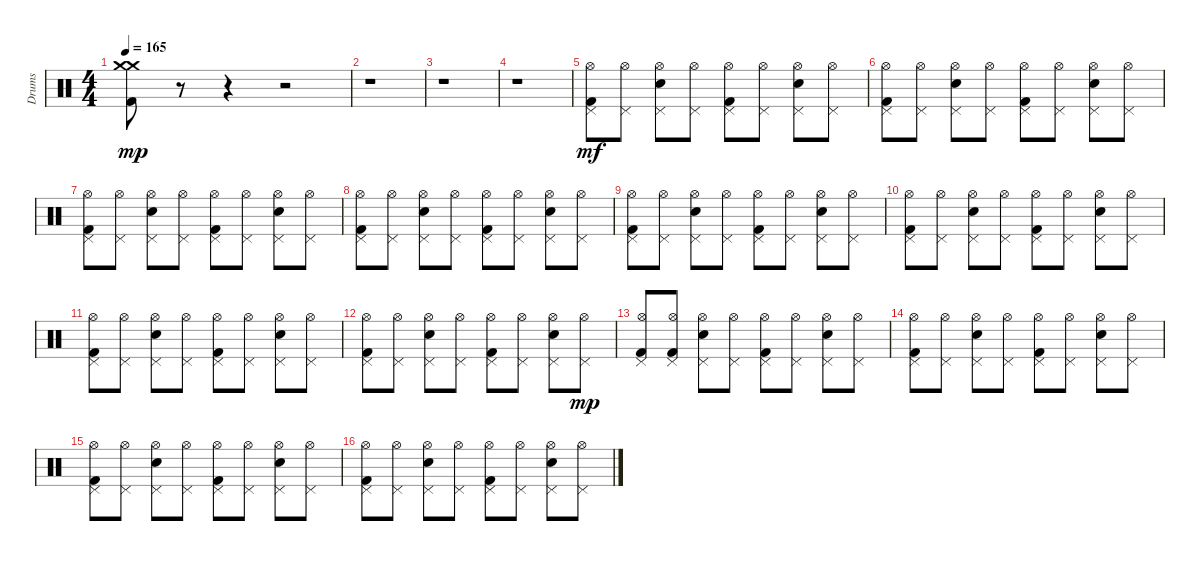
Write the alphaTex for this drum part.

\track ("Drums" "Drums") {instrument percussion}
\staff {score}
\articulation defaults
\ts (4 4)
\tempo 165
\clef neutral
\ks c
("Crash medium (hit)" "Crash medium (hit)" "Kick (hit) 2").8{dy mp} r.8 r.4 r.2 |
r.1 |
r.1 |
r.1 |
("Hi-Hat (open)" "Pedal Hi-Hat (hit)" "Kick (hit) 2").8{dy mf} ("Hi-Hat (open)" "Pedal Hi-Hat (hit)").8 ("Hi-Hat (open)" "Pedal Hi-Hat (hit)" "Electric Snare (hit)").8 ("Hi-Hat (open)" "Pedal Hi-Hat (hit)").8 ("Hi-Hat (open)" "Pedal Hi-Hat (hit)" "Kick (hit) 2").8 ("Hi-Hat (open)" "Pedal Hi-Hat (hit)").8 ("Hi-Hat (open)" "Pedal Hi-Hat (hit)" "Electric Snare (hit)").8 ("Hi-Hat (open)" "Pedal Hi-Hat (hit)").8 |
("Hi-Hat (open)" "Pedal Hi-Hat (hit)" "Kick (hit) 2").8 ("Hi-Hat (open)" "Pedal Hi-Hat (hit)").8 ("Hi-Hat (open)" "Pedal Hi-Hat (hit)" "Electric Snare (hit)").8 ("Hi-Hat (open)" "Pedal Hi-Hat (hit)").8 ("Hi-Hat (open)" "Pedal Hi-Hat (hit)" "Kick (hit) 2").8 ("Hi-Hat (open)" "Pedal Hi-Hat (hit)").8 ("Hi-Hat (open)" "Pedal Hi-Hat (hit)" "Electric Snare (hit)").8 ("Hi-Hat (open)" "Pedal Hi-Hat (hit)").8 |
("Hi-Hat (open)" "Pedal Hi-Hat (hit)" "Kick (hit) 2").8 ("Hi-Hat (open)" "Pedal Hi-Hat (hit)").8 ("Hi-Hat (open)" "Pedal Hi-Hat (hit)" "Electric Snare (hit)").8 ("Hi-Hat (open)" "Pedal Hi-Hat (hit)").8 ("Hi-Hat (open)" "Pedal Hi-Hat (hit)" "Kick (hit) 2").8 ("Hi-Hat (open)" "Pedal Hi-Hat (hit)").8 ("Hi-Hat (open)" "Pedal Hi-Hat (hit)" "Electric Snare (hit)").8 ("Hi-Hat (open)" "Pedal Hi-Hat (hit)").8 |
("Hi-Hat (open)" "Pedal Hi-Hat (hit)" "Kick (hit) 2").8 ("Hi-Hat (open)" "Pedal Hi-Hat (hit)").8 ("Hi-Hat (open)" "Pedal Hi-Hat (hit)" "Electric Snare (hit)").8 ("Hi-Hat (open)" "Pedal Hi-Hat (hit)").8 ("Hi-Hat (open)" "Pedal Hi-Hat (hit)" "Kick (hit) 2").8 ("Hi-Hat (open)" "Pedal Hi-Hat (hit)").8 ("Hi-Hat (open)" "Pedal Hi-Hat (hit)" "Electric Snare (hit)").8 ("Hi-Hat (open)" "Pedal Hi-Hat (hit)").8 |
("Hi-Hat (open)" "Pedal Hi-Hat (hit)" "Kick (hit) 2").8 ("Hi-Hat (open)" "Pedal Hi-Hat (hit)").8 ("Hi-Hat (open)" "Pedal Hi-Hat (hit)" "Electric Snare (hit)").8 ("Hi-Hat (open)" "Pedal Hi-Hat (hit)").8 ("Hi-Hat (open)" "Pedal Hi-Hat (hit)" "Kick (hit) 2").8 ("Hi-Hat (open)" "Pedal Hi-Hat (hit)").8 ("Hi-Hat (open)" "Pedal Hi-Hat (hit)" "Electric Snare (hit)").8 ("Hi-Hat (open)" "Pedal Hi-Hat (hit)").8 |
("Hi-Hat (open)" "Pedal Hi-Hat (hit)" "Kick (hit) 2").8 ("Hi-Hat (open)" "Pedal Hi-Hat (hit)").8 ("Hi-Hat (open)" "Pedal Hi-Hat (hit)" "Electric Snare (hit)").8 ("Hi-Hat (open)" "Pedal Hi-Hat (hit)").8 ("Hi-Hat (open)" "Pedal Hi-Hat (hit)" "Kick (hit) 2").8 ("Hi-Hat (open)" "Pedal Hi-Hat (hit)").8 ("Hi-Hat (open)" "Pedal Hi-Hat (hit)" "Electric Snare (hit)").8 ("Hi-Hat (open)" "Pedal Hi-Hat (hit)").8 |
("Hi-Hat (open)" "Pedal Hi-Hat (hit)" "Kick (hit) 2").8 ("Hi-Hat (open)" "Pedal Hi-Hat (hit)").8 ("Hi-Hat (open)" "Pedal Hi-Hat (hit)" "Electric Snare (hit)").8 ("Hi-Hat (open)" "Pedal Hi-Hat (hit)").8 ("Hi-Hat (open)" "Pedal Hi-Hat (hit)" "Kick (hit) 2").8 ("Hi-Hat (open)" "Pedal Hi-Hat (hit)").8 ("Hi-Hat (open)" "Pedal Hi-Hat (hit)" "Electric Snare (hit)").8 ("Hi-Hat (open)" "Pedal Hi-Hat (hit)").8 |
("Hi-Hat (open)" "Pedal Hi-Hat (hit)" "Kick (hit) 2").8 ("Hi-Hat (open)" "Pedal Hi-Hat (hit)").8 ("Hi-Hat (open)" "Pedal Hi-Hat (hit)" "Electric Snare (hit)").8 ("Hi-Hat (open)" "Pedal Hi-Hat (hit)").8 ("Hi-Hat (open)" "Pedal Hi-Hat (hit)" "Kick (hit) 2").8 ("Hi-Hat (open)" "Pedal Hi-Hat (hit)").8 ("Hi-Hat (open)" "Pedal Hi-Hat (hit)" "Electric Snare (hit)").8 ("Hi-Hat (open)" "Pedal Hi-Hat (hit)").8{dy mp} |
("Hi-Hat (open)" "Pedal Hi-Hat (hit)" "Kick (hit) 2").8 ("Hi-Hat (open)" "Pedal Hi-Hat (hit)" "Kick (hit) 2").8 ("Hi-Hat (open)" "Pedal Hi-Hat (hit)" "Electric Snare (hit)").8 ("Hi-Hat (open)" "Pedal Hi-Hat (hit)").8 ("Hi-Hat (open)" "Pedal Hi-Hat (hit)" "Kick (hit) 2").8 ("Hi-Hat (open)" "Pedal Hi-Hat (hit)").8 ("Hi-Hat (open)" "Pedal Hi-Hat (hit)" "Electric Snare (hit)").8 ("Hi-Hat (open)" "Pedal Hi-Hat (hit)").8 |
("Hi-Hat (open)" "Pedal Hi-Hat (hit)" "Kick (hit) 2").8 ("Hi-Hat (open)" "Pedal Hi-Hat (hit)").8 ("Hi-Hat (open)" "Pedal Hi-Hat (hit)" "Electric Snare (hit)").8 ("Hi-Hat (open)" "Pedal Hi-Hat (hit)").8 ("Hi-Hat (open)" "Pedal Hi-Hat (hit)" "Kick (hit) 2").8 ("Hi-Hat (open)" "Pedal Hi-Hat (hit)").8 ("Hi-Hat (open)" "Pedal Hi-Hat (hit)" "Electric Snare (hit)").8 ("Hi-Hat (open)" "Pedal Hi-Hat (hit)").8 |
("Hi-Hat (open)" "Pedal Hi-Hat (hit)" "Kick (hit) 2").8 ("Hi-Hat (open)" "Pedal Hi-Hat (hit)").8 ("Hi-Hat (open)" "Pedal Hi-Hat (hit)" "Electric Snare (hit)").8 ("Hi-Hat (open)" "Pedal Hi-Hat (hit)").8 ("Hi-Hat (open)" "Pedal Hi-Hat (hit)" "Kick (hit) 2").8 ("Hi-Hat (open)" "Pedal Hi-Hat (hit)").8 ("Hi-Hat (open)" "Pedal Hi-Hat (hit)" "Electric Snare (hit)").8 ("Hi-Hat (open)" "Pedal Hi-Hat (hit)").8 |
("Hi-Hat (open)" "Pedal Hi-Hat (hit)" "Kick (hit) 2").8 ("Hi-Hat (open)" "Pedal Hi-Hat (hit)").8 ("Hi-Hat (open)" "Pedal Hi-Hat (hit)" "Electric Snare (hit)").8 ("Hi-Hat (open)" "Pedal Hi-Hat (hit)").8 ("Hi-Hat (open)" "Pedal Hi-Hat (hit)" "Kick (hit) 2").8 ("Hi-Hat (open)" "Pedal Hi-Hat (hit)").8 ("Hi-Hat (open)" "Pedal Hi-Hat (hit)" "Electric Snare (hit)").8 ("Hi-Hat (open)" "Pedal Hi-Hat (hit)").8
